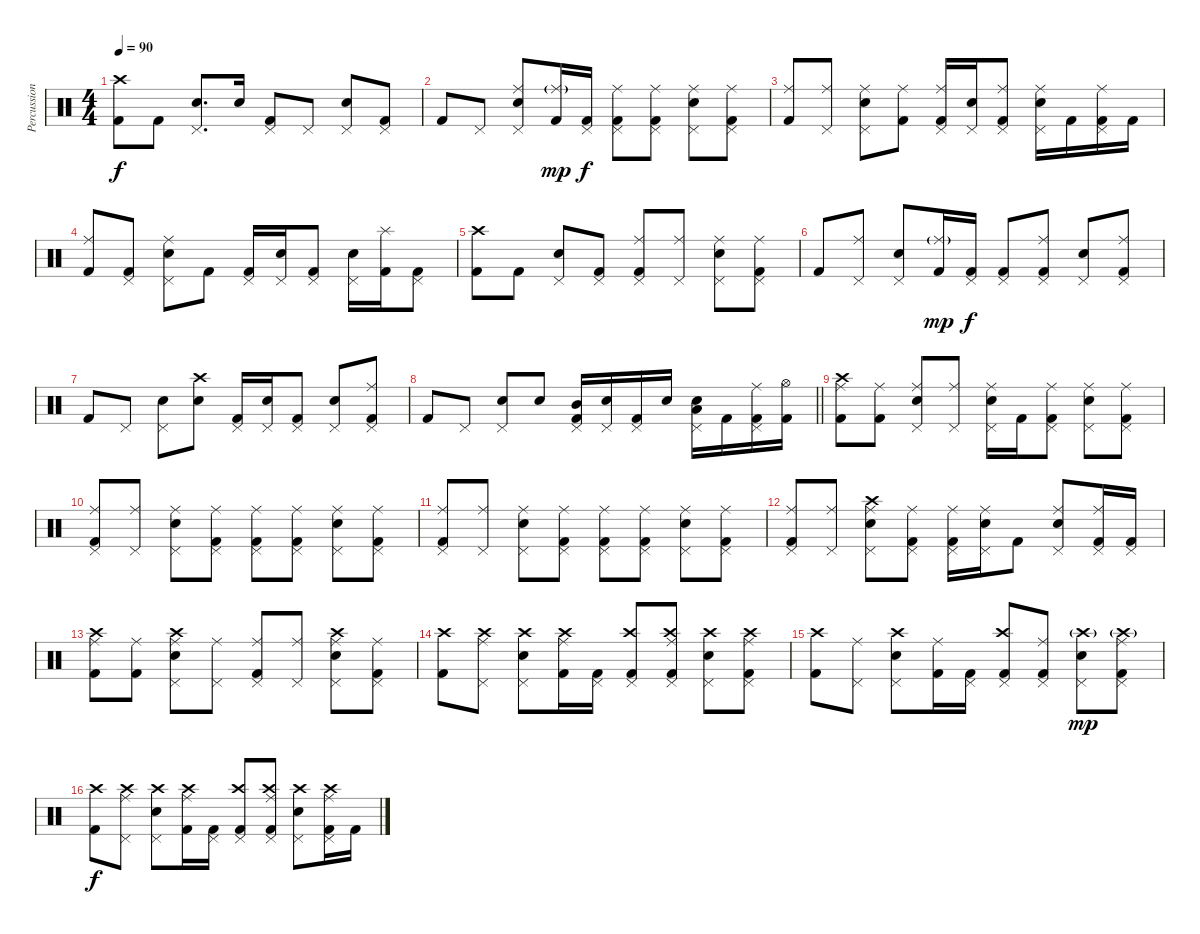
\track ("Percussion" "Percussion") {instrument percussion}
\staff {score}
\articulation defaults
\ts (4 4)
\tempo 90
\clef neutral
\ks c
("Kick (hit) 2" "Crash high (hit)").8{dy f} "Kick (hit) 2".8 ("Snare (hit) 2" "Pedal Hi-Hat (hit)").8{d} "Snare (hit) 2".16 ("Kick (hit) 2" "Pedal Hi-Hat (hit)").8 "Pedal Hi-Hat (hit)".8 ("Snare (hit) 2" "Pedal Hi-Hat (hit)").8 ("Kick (hit) 2" "Pedal Hi-Hat (hit)").8 |
"Kick (hit) 2".8 "Pedal Hi-Hat (hit)".8 ("Snare (hit) 2" "Pedal Hi-Hat (hit)" "Ride (middle)").8 ("Kick (hit) 2" "Ride (middle)"{g}).16{dy mp} ("Kick (hit) 2" "Pedal Hi-Hat (hit)").16{dy f} ("Kick (hit) 2" "Pedal Hi-Hat (hit)" "Ride (middle)").8 ("Kick (hit) 2" "Pedal Hi-Hat (hit)" "Ride (middle)").8 ("Snare (hit) 2" "Pedal Hi-Hat (hit)" "Ride (middle)").8 ("Kick (hit) 2" "Pedal Hi-Hat (hit)" "Ride (middle)").8 |
("Kick (hit) 2" "Ride (middle)").8 ("Pedal Hi-Hat (hit)" "Ride (middle)").8 ("Snare (hit) 2" "Pedal Hi-Hat (hit)" "Ride (middle)").8 ("Kick (hit) 2" "Ride (middle)").8 ("Kick (hit) 2" "Pedal Hi-Hat (hit)" "Ride (middle)").16 ("Snare (hit) 2" "Pedal Hi-Hat (hit)").16 ("Kick (hit) 2" "Pedal Hi-Hat (hit)" "Ride (middle)").8 ("Snare (hit) 2" "Pedal Hi-Hat (hit)" "Ride (middle)").16 "Kick (hit) 2".16 ("Kick (hit) 2" "Pedal Hi-Hat (hit)" "Ride (middle)").16 "Kick (hit) 2".16 |
("Kick (hit) 2" "Ride (middle)").8 ("Kick (hit) 2" "Pedal Hi-Hat (hit)").8 ("Snare (hit) 2" "Pedal Hi-Hat (hit)" "Ride (middle)").8 "Kick (hit) 2".8 ("Kick (hit) 2" "Pedal Hi-Hat (hit)").16 ("Snare (hit) 2" "Pedal Hi-Hat (hit)").16 ("Kick (hit) 2" "Pedal Hi-Hat (hit)").8 ("Snare (hit) 2" "Pedal Hi-Hat (hit)").16 ("Kick (hit) 2" "Splash (hit)").16 ("Kick (hit) 2" "Pedal Hi-Hat (hit)").8 |
("Kick (hit) 2" "Crash high (hit)").8 "Kick (hit) 2".8 ("Snare (hit) 2" "Pedal Hi-Hat (hit)").8 ("Kick (hit) 2" "Pedal Hi-Hat (hit)").8 ("Kick (hit) 2" "Pedal Hi-Hat (hit)" "Ride (middle)").8 ("Pedal Hi-Hat (hit)" "Ride (middle)").8 ("Snare (hit) 2" "Pedal Hi-Hat (hit)" "Ride (middle)").8 ("Kick (hit) 2" "Pedal Hi-Hat (hit)" "Ride (middle)").8 |
"Kick (hit) 2".8 ("Pedal Hi-Hat (hit)" "Ride (middle)").8 ("Snare (hit) 2" "Pedal Hi-Hat (hit)").8 ("Kick (hit) 2" "Ride (middle)"{g}).16{dy mp} ("Kick (hit) 2" "Pedal Hi-Hat (hit)").16{dy f} ("Kick (hit) 2" "Pedal Hi-Hat (hit)").8 ("Kick (hit) 2" "Pedal Hi-Hat (hit)" "Ride (middle)").8 ("Snare (hit) 2" "Pedal Hi-Hat (hit)").8 ("Kick (hit) 2" "Pedal Hi-Hat (hit)" "Ride (middle)").8 |
"Kick (hit) 2".8 "Pedal Hi-Hat (hit)".8 ("Snare (hit) 2" "Pedal Hi-Hat (hit)").8 ("Snare (hit) 2" "Crash high (hit)").8 ("Kick (hit) 2" "Pedal Hi-Hat (hit)").16 ("Snare (hit) 2" "Pedal Hi-Hat (hit)").16 ("Kick (hit) 2" "Pedal Hi-Hat (hit)").8 ("Snare (hit) 2" "Pedal Hi-Hat (hit)").8 ("Kick (hit) 2" "Pedal Hi-Hat (hit)" "Ride (middle)").8 |
\barLineRight lightlight "Kick (hit) 2".8 "Pedal Hi-Hat (hit)".8
("Snare (hit) 2" "Pedal Hi-Hat (hit)").8 "Snare (hit) 2".8 ("Kick (hit) 2" "Pedal Hi-Hat (hit)" "Mid Tom (hit)").16 ("Snare (hit) 2" "Pedal Hi-Hat (hit)").16 ("Kick (hit) 2" "Pedal Hi-Hat (hit)").16 "Snare (hit) 2".16 ("Snare (hit) 2" "Pedal Hi-Hat (hit)" "Low Tom (hit)").16 "Kick (hit) 2".16 ("Kick (hit) 2" "Pedal Hi-Hat (hit)" "Ride (middle)").16 ("Kick (hit) 2" "Hi-Hat (open)").16 |
("Kick (hit) 2" "Crash high (hit)" "Ride (middle)").8 ("Kick (hit) 2" "Ride (middle)").8 ("Snare (hit) 2" "Pedal Hi-Hat (hit)" "Ride (middle)").8 ("Pedal Hi-Hat (hit)" "Ride (middle)").8 ("Snare (hit) 2" "Pedal Hi-Hat (hit)" "Ride (middle)").16 "Kick (hit) 2".16 ("Kick (hit) 2" "Pedal Hi-Hat (hit)" "Ride (middle)").8 ("Snare (hit) 2" "Pedal Hi-Hat (hit)" "Ride (middle)").8 ("Kick (hit) 2" "Pedal Hi-Hat (hit)" "Ride (middle)").8 |
("Kick (hit) 2" "Pedal Hi-Hat (hit)" "Ride (middle)").8 ("Pedal Hi-Hat (hit)" "Ride (middle)").8 ("Snare (hit) 2" "Pedal Hi-Hat (hit)" "Ride (middle)").8 ("Kick (hit) 2" "Pedal Hi-Hat (hit)" "Ride (middle)").8 ("Kick (hit) 2" "Pedal Hi-Hat (hit)" "Ride (middle)").8 ("Kick (hit) 2" "Pedal Hi-Hat (hit)" "Ride (middle)").8 ("Snare (hit) 2" "Pedal Hi-Hat (hit)" "Ride (middle)").8 ("Kick (hit) 2" "Pedal Hi-Hat (hit)" "Ride (middle)").8 |
("Kick (hit) 2" "Pedal Hi-Hat (hit)" "Ride (middle)").8 ("Pedal Hi-Hat (hit)" "Ride (middle)").8 ("Snare (hit) 2" "Pedal Hi-Hat (hit)" "Ride (middle)").8 ("Kick (hit) 2" "Pedal Hi-Hat (hit)" "Ride (middle)").8 ("Kick (hit) 2" "Pedal Hi-Hat (hit)" "Ride (middle)").8 ("Kick (hit) 2" "Pedal Hi-Hat (hit)" "Ride (middle)").8 ("Snare (hit) 2" "Pedal Hi-Hat (hit)" "Ride (middle)").8 ("Kick (hit) 2" "Pedal Hi-Hat (hit)" "Ride (middle)").8 |
("Kick (hit) 2" "Pedal Hi-Hat (hit)" "Ride (middle)").8 ("Pedal Hi-Hat (hit)" "Ride (middle)").8 ("Snare (hit) 2" "Pedal Hi-Hat (hit)" "Crash high (hit)" "Ride (middle)").8 ("Kick (hit) 2" "Pedal Hi-Hat (hit)" "Ride (middle)").8 ("Kick (hit) 2" "Pedal Hi-Hat (hit)" "Ride (middle)").16 ("Snare (hit) 2" "Pedal Hi-Hat (hit)" "Ride (middle)").16 "Kick (hit) 2".8 ("Snare (hit) 2" "Pedal Hi-Hat (hit)" "Ride (middle)").8 ("Kick (hit) 2" "Pedal Hi-Hat (hit)" "Ride (middle)").16 ("Kick (hit) 2" "Pedal Hi-Hat (hit)").16 |
("Kick (hit) 2" "Crash high (hit)" "Ride (middle)").8 ("Kick (hit) 2" "Ride (middle)").8 ("Snare (hit) 2" "Pedal Hi-Hat (hit)" "Crash high (hit)" "Ride (middle)").8 ("Pedal Hi-Hat (hit)" "Ride (middle)").8 ("Kick (hit) 2" "Pedal Hi-Hat (hit)" "Ride (middle)").8 ("Pedal Hi-Hat (hit)" "Ride (middle)").8 ("Snare (hit) 2" "Pedal Hi-Hat (hit)" "Crash high (hit)" "Ride (middle)").8 ("Kick (hit) 2" "Pedal Hi-Hat (hit)" "Ride (middle)").8 |
("Kick (hit) 2" "Crash high (hit)").8 ("Pedal Hi-Hat (hit)" "Crash high (hit)" "Ride (middle)").8 ("Snare (hit) 2" "Pedal Hi-Hat (hit)" "Crash high (hit)").8 ("Kick (hit) 2" "Crash high (hit)" "Ride (middle)").16 ("Kick (hit) 2" "Pedal Hi-Hat (hit)").16 ("Kick (hit) 2" "Pedal Hi-Hat (hit)" "Crash high (hit)").8 ("Kick (hit) 2" "Pedal Hi-Hat (hit)" "Crash high (hit)" "Ride (middle)").8 ("Snare (hit) 2" "Pedal Hi-Hat (hit)" "Crash high (hit)").8 ("Kick (hit) 2" "Pedal Hi-Hat (hit)" "Crash high (hit)" "Ride (middle)").8 |
("Kick (hit) 2" "Crash high (hit)").8 ("Pedal Hi-Hat (hit)" "Ride (middle)").8 ("Snare (hit) 2" "Pedal Hi-Hat (hit)" "Crash high (hit)").8 ("Kick (hit) 2" "Ride (middle)").16 ("Kick (hit) 2" "Pedal Hi-Hat (hit)").16 ("Kick (hit) 2" "Pedal Hi-Hat (hit)" "Crash high (hit)").8 ("Kick (hit) 2" "Pedal Hi-Hat (hit)" "Ride (middle)").8 ("Snare (hit) 2" "Pedal Hi-Hat (hit)" "Crash high (hit)"{g}).8{dy mp} ("Kick (hit) 2" "Pedal Hi-Hat (hit)" "Crash high (hit)"{g} "Ride (middle)").8 |
("Kick (hit) 2" "Crash high (hit)").8{dy f} ("Pedal Hi-Hat (hit)" "Crash high (hit)" "Ride (middle)").8 ("Snare (hit) 2" "Pedal Hi-Hat (hit)" "Crash high (hit)").8 ("Kick (hit) 2" "Crash high (hit)" "Ride (middle)").16 ("Kick (hit) 2" "Pedal Hi-Hat (hit)").16 ("Kick (hit) 2" "Pedal Hi-Hat (hit)" "Crash high (hit)").8 ("Kick (hit) 2" "Pedal Hi-Hat (hit)" "Crash high (hit)" "Ride (middle)").8 ("Snare (hit) 2" "Pedal Hi-Hat (hit)" "Crash high (hit)").8 ("Kick (hit) 2" "Pedal Hi-Hat (hit)" "Crash high (hit)" "Ride (middle)").16 "Kick (hit) 2".16
